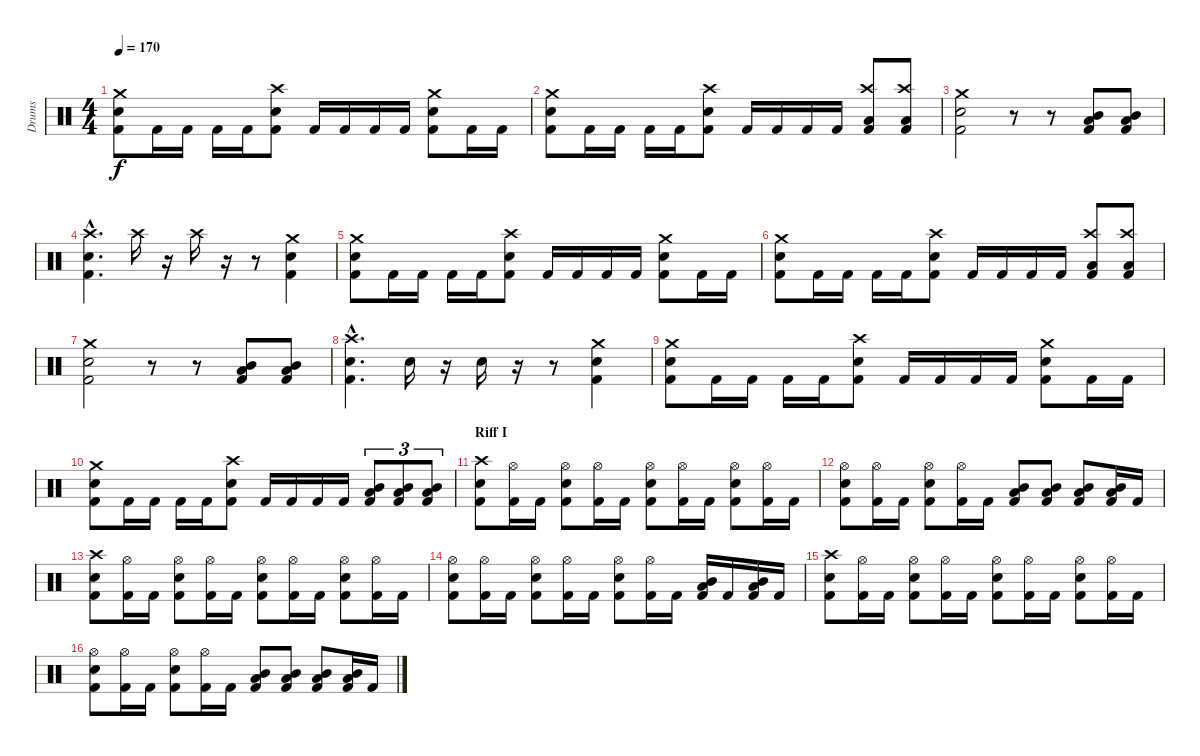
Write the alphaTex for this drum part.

\track ("Drums" "Drums") {instrument percussion}
\staff {score}
\articulation defaults
\ts (4 4)
\tempo 170
\clef neutral
\ks c
("Kick (hit) 2" "Snare (hit) 2" "Crash medium (hit)").8{dy f} "Kick (hit) 2".16 "Kick (hit) 2".16 "Kick (hit) 2".16 "Kick (hit) 2".16 ("Kick (hit) 2" "Snare (hit) 2" "Crash high (hit)").8 "Kick (hit) 2".16 "Kick (hit) 2".16 "Kick (hit) 2".16 "Kick (hit) 2".16 ("Kick (hit) 2" "Snare (hit) 2" "Crash medium (hit)").8 "Kick (hit) 2".16 "Kick (hit) 2".16 |
("Kick (hit) 2" "Snare (hit) 2" "Crash medium (hit)").8 "Kick (hit) 2".16 "Kick (hit) 2".16 "Kick (hit) 2".16 "Kick (hit) 2".16 ("Kick (hit) 2" "Snare (hit) 2" "Crash high (hit)").8 "Kick (hit) 2".16 "Kick (hit) 2".16 "Kick (hit) 2".16 "Kick (hit) 2".16 ("Kick (hit) 2" "Low Tom (hit)" "Crash high (hit)").8 ("Kick (hit) 2" "Low Tom (hit)" "Crash high (hit)").8 |
("Kick (hit) 2" "Snare (hit) 2" "Crash medium (hit)").2 r.8 r.8 ("Kick (hit) 2" "Low Tom (hit)" "Mid Tom (hit)").8 ("Kick (hit) 2" "Low Tom (hit)" "Mid Tom (hit)").8 |
("Kick (hit) 2"{hac} "Snare (hit) 2"{hac} "Crash high (hit)"{hac}).4{d} "Crash high (hit)".16 r.16 "Crash high (hit)".16 r.16 r.8 ("Kick (hit) 2" "Snare (hit) 2" "Crash medium (hit)").4 |
("Kick (hit) 2" "Snare (hit) 2" "Crash medium (hit)").8 "Kick (hit) 2".16 "Kick (hit) 2".16 "Kick (hit) 2".16 "Kick (hit) 2".16 ("Kick (hit) 2" "Snare (hit) 2" "Crash high (hit)").8 "Kick (hit) 2".16 "Kick (hit) 2".16 "Kick (hit) 2".16 "Kick (hit) 2".16 ("Kick (hit) 2" "Snare (hit) 2" "Crash medium (hit)").8 "Kick (hit) 2".16 "Kick (hit) 2".16 |
("Kick (hit) 2" "Snare (hit) 2" "Crash medium (hit)").8 "Kick (hit) 2".16 "Kick (hit) 2".16 "Kick (hit) 2".16 "Kick (hit) 2".16 ("Kick (hit) 2" "Snare (hit) 2" "Crash high (hit)").8 "Kick (hit) 2".16 "Kick (hit) 2".16 "Kick (hit) 2".16 "Kick (hit) 2".16 ("Kick (hit) 2" "Low Tom (hit)" "Crash high (hit)").8 ("Kick (hit) 2" "Low Tom (hit)" "Crash high (hit)").8 |
("Kick (hit) 2" "Snare (hit) 2" "Crash medium (hit)").2 r.8 r.8 ("Kick (hit) 2" "Low Tom (hit)" "Mid Tom (hit)").8 ("Kick (hit) 2" "Low Tom (hit)" "Mid Tom (hit)").8 |
("Kick (hit) 2"{hac} "Snare (hit) 2"{hac} "Crash high (hit)"{hac}).4{d} "Snare (hit) 2".16 r.16 "Snare (hit) 2".16 r.16 r.8 ("Kick (hit) 2" "Snare (hit) 2" "Crash medium (hit)").4 |
("Kick (hit) 2" "Snare (hit) 2" "Crash medium (hit)").8 "Kick (hit) 2".16 "Kick (hit) 2".16 "Kick (hit) 2".16 "Kick (hit) 2".16 ("Kick (hit) 2" "Snare (hit) 2" "Crash high (hit)").8 "Kick (hit) 2".16 "Kick (hit) 2".16 "Kick (hit) 2".16 "Kick (hit) 2".16 ("Kick (hit) 2" "Snare (hit) 2" "Crash medium (hit)").8 "Kick (hit) 2".16 "Kick (hit) 2".16 |
("Kick (hit) 2" "Snare (hit) 2" "Crash medium (hit)").8 "Kick (hit) 2".16 "Kick (hit) 2".16 "Kick (hit) 2".16 "Kick (hit) 2".16 ("Kick (hit) 2" "Snare (hit) 2" "Crash high (hit)").8 "Kick (hit) 2".16 "Kick (hit) 2".16 "Kick (hit) 2".16 "Kick (hit) 2".16 ("Kick (hit) 2" "Low Tom (hit)" "Mid Tom (hit)").8{tu (3 2)} ("Kick (hit) 2" "Low Tom (hit)" "Mid Tom (hit)").8{tu (3 2)} ("Kick (hit) 2" "Low Tom (hit)" "Mid Tom (hit)").8{tu (3 2)} |
\section ("" "Riff I")
("Kick (hit) 2" "Snare (hit) 2" "Crash high (hit)").8 ("Kick (hit) 2" "Hi-Hat (open)").16 "Kick (hit) 2".16 ("Kick (hit) 2" "Snare (hit) 2" "Hi-Hat (open)").8 ("Kick (hit) 2" "Hi-Hat (open)").16 "Kick (hit) 2".16 ("Kick (hit) 2" "Snare (hit) 2" "Hi-Hat (open)").8 ("Kick (hit) 2" "Hi-Hat (open)").16 "Kick (hit) 2".16 ("Kick (hit) 2" "Snare (hit) 2" "Hi-Hat (open)").8 ("Kick (hit) 2" "Hi-Hat (open)").16 "Kick (hit) 2".16 |
("Kick (hit) 2" "Snare (hit) 2" "Hi-Hat (open)").8 ("Kick (hit) 2" "Hi-Hat (open)").16 "Kick (hit) 2".16 ("Kick (hit) 2" "Snare (hit) 2" "Hi-Hat (open)").8 ("Kick (hit) 2" "Hi-Hat (open)").16 "Kick (hit) 2".16 ("Kick (hit) 2" "Mid Tom (hit)" "Low Tom (hit)").8 ("Kick (hit) 2" "Mid Tom (hit)" "Low Tom (hit)").8 ("Kick (hit) 2" "Mid Tom (hit)" "Low Tom (hit)").8 ("Kick (hit) 2" "Mid Tom (hit)" "Low Tom (hit)").16 "Kick (hit) 2".16 |
("Kick (hit) 2" "Snare (hit) 2" "Crash high (hit)").8 ("Kick (hit) 2" "Hi-Hat (open)").16 "Kick (hit) 2".16 ("Kick (hit) 2" "Snare (hit) 2" "Hi-Hat (open)").8 ("Kick (hit) 2" "Hi-Hat (open)").16 "Kick (hit) 2".16 ("Kick (hit) 2" "Snare (hit) 2" "Hi-Hat (open)").8 ("Kick (hit) 2" "Hi-Hat (open)").16 "Kick (hit) 2".16 ("Kick (hit) 2" "Snare (hit) 2" "Hi-Hat (open)").8 ("Kick (hit) 2" "Hi-Hat (open)").16 "Kick (hit) 2".16 |
("Kick (hit) 2" "Snare (hit) 2" "Hi-Hat (open)").8 ("Kick (hit) 2" "Hi-Hat (open)").16 "Kick (hit) 2".16 ("Kick (hit) 2" "Snare (hit) 2" "Hi-Hat (open)").8 ("Kick (hit) 2" "Hi-Hat (open)").16 "Kick (hit) 2".16 ("Kick (hit) 2" "Snare (hit) 2" "Hi-Hat (open)").8 ("Kick (hit) 2" "Hi-Hat (open)").16 "Kick (hit) 2".16 ("Kick (hit) 2" "Mid Tom (hit)" "Low Tom (hit)").16 "Kick (hit) 2".16 ("Kick (hit) 2" "Mid Tom (hit)" "Low Tom (hit)").16 "Kick (hit) 2".16 |
("Kick (hit) 2" "Snare (hit) 2" "Crash high (hit)").8 ("Kick (hit) 2" "Hi-Hat (open)").16 "Kick (hit) 2".16 ("Kick (hit) 2" "Snare (hit) 2" "Hi-Hat (open)").8 ("Kick (hit) 2" "Hi-Hat (open)").16 "Kick (hit) 2".16 ("Kick (hit) 2" "Snare (hit) 2" "Hi-Hat (open)").8 ("Kick (hit) 2" "Hi-Hat (open)").16 "Kick (hit) 2".16 ("Kick (hit) 2" "Snare (hit) 2" "Hi-Hat (open)").8 ("Kick (hit) 2" "Hi-Hat (open)").16 "Kick (hit) 2".16 |
("Kick (hit) 2" "Snare (hit) 2" "Hi-Hat (open)").8 ("Kick (hit) 2" "Hi-Hat (open)").16 "Kick (hit) 2".16 ("Kick (hit) 2" "Snare (hit) 2" "Hi-Hat (open)").8 ("Kick (hit) 2" "Hi-Hat (open)").16 "Kick (hit) 2".16 ("Kick (hit) 2" "Mid Tom (hit)" "Low Tom (hit)").8 ("Kick (hit) 2" "Mid Tom (hit)" "Low Tom (hit)").8 ("Kick (hit) 2" "Mid Tom (hit)" "Low Tom (hit)").8 ("Kick (hit) 2" "Mid Tom (hit)" "Low Tom (hit)").16 "Kick (hit) 2".16
